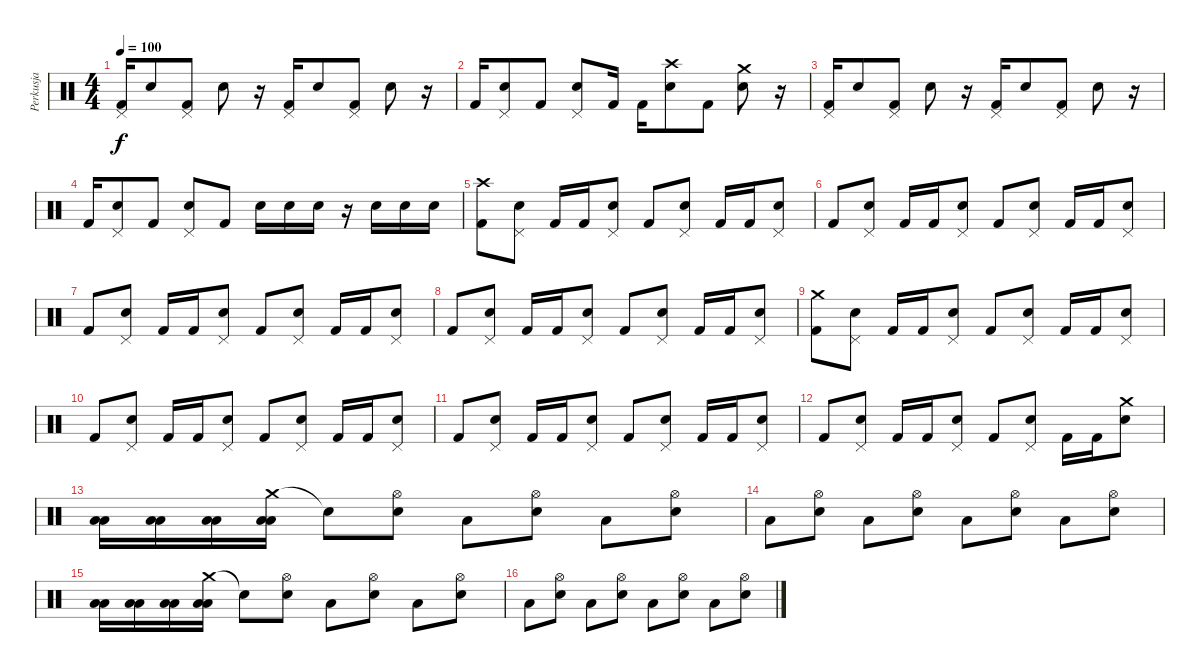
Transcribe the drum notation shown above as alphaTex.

\track ("Perkusja" "Perkusja") {instrument percussion}
\staff {score}
\articulation defaults
\ts (4 4)
\tempo 100
\clef neutral
\ks c
("Pedal Hi-Hat (hit)" "Kick (hit) 2").16{dy f} "Snare (hit) 2".8 ("Pedal Hi-Hat (hit)" "Kick (hit) 2").8 "Snare (hit) 2".8 r.16 ("Pedal Hi-Hat (hit)" "Kick (hit) 2").16 "Snare (hit) 2".8 ("Pedal Hi-Hat (hit)" "Kick (hit) 2").8 "Snare (hit) 2".8 r.16 |
"Kick (hit) 2".16 ("Pedal Hi-Hat (hit)" "Snare (hit) 2").8 "Kick (hit) 2".8 ("Pedal Hi-Hat (hit)" "Snare (hit) 2").8 "Kick (hit) 2".16 "Kick (hit) 2".16 ("Crash high (hit)" "Snare (hit) 2").8 "Kick (hit) 2".8 ("Crash medium (hit)" "Snare (hit) 2").8 r.16 |
("Pedal Hi-Hat (hit)" "Kick (hit) 2").16 "Snare (hit) 2".8 ("Pedal Hi-Hat (hit)" "Kick (hit) 2").8 "Snare (hit) 2".8 r.16 ("Pedal Hi-Hat (hit)" "Kick (hit) 2").16 "Snare (hit) 2".8 ("Pedal Hi-Hat (hit)" "Kick (hit) 2").8 "Snare (hit) 2".8 r.16 |
"Kick (hit) 2".16 ("Pedal Hi-Hat (hit)" "Snare (hit) 2").8 "Kick (hit) 2".8 ("Pedal Hi-Hat (hit)" "Snare (hit) 2").8 "Kick (hit) 2".8 "Snare (hit) 2".16 "Snare (hit) 2".16 "Snare (hit) 2".16 r.16 "Snare (hit) 2".16 "Snare (hit) 2".16 "Snare (hit) 2".16 |
("Crash high (hit)" "Kick (hit) 2").8 ("Pedal Hi-Hat (hit)" "Snare (hit) 2").8 "Kick (hit) 2".16 "Kick (hit) 2".16 ("Pedal Hi-Hat (hit)" "Snare (hit) 2").8 "Kick (hit) 2".8 ("Pedal Hi-Hat (hit)" "Snare (hit) 2").8 "Kick (hit) 2".16 "Kick (hit) 2".16 ("Pedal Hi-Hat (hit)" "Snare (hit) 2").8 |
"Kick (hit) 2".8 ("Pedal Hi-Hat (hit)" "Snare (hit) 2").8 "Kick (hit) 2".16 "Kick (hit) 2".16 ("Pedal Hi-Hat (hit)" "Snare (hit) 2").8 "Kick (hit) 2".8 ("Pedal Hi-Hat (hit)" "Snare (hit) 2").8 "Kick (hit) 2".16 "Kick (hit) 2".16 ("Pedal Hi-Hat (hit)" "Snare (hit) 2").8 |
"Kick (hit) 2".8 ("Pedal Hi-Hat (hit)" "Snare (hit) 2").8 "Kick (hit) 2".16 "Kick (hit) 2".16 ("Pedal Hi-Hat (hit)" "Snare (hit) 2").8 "Kick (hit) 2".8 ("Pedal Hi-Hat (hit)" "Snare (hit) 2").8 "Kick (hit) 2".16 "Kick (hit) 2".16 ("Pedal Hi-Hat (hit)" "Snare (hit) 2").8 |
"Kick (hit) 2".8 ("Pedal Hi-Hat (hit)" "Snare (hit) 2").8 "Kick (hit) 2".16 "Kick (hit) 2".16 ("Pedal Hi-Hat (hit)" "Snare (hit) 2").8 "Kick (hit) 2".8 ("Pedal Hi-Hat (hit)" "Snare (hit) 2").8 "Kick (hit) 2".16 "Kick (hit) 2".16 ("Pedal Hi-Hat (hit)" "Snare (hit) 2").8 |
("Crash medium (hit)" "Kick (hit) 2").8 ("Pedal Hi-Hat (hit)" "Snare (hit) 2").8 "Kick (hit) 2".16 "Kick (hit) 2".16 ("Pedal Hi-Hat (hit)" "Snare (hit) 2").8 "Kick (hit) 2".8 ("Pedal Hi-Hat (hit)" "Snare (hit) 2").8 "Kick (hit) 2".16 "Kick (hit) 2".16 ("Pedal Hi-Hat (hit)" "Snare (hit) 2").8 |
"Kick (hit) 2".8 ("Pedal Hi-Hat (hit)" "Snare (hit) 2").8 "Kick (hit) 2".16 "Kick (hit) 2".16 ("Pedal Hi-Hat (hit)" "Snare (hit) 2").8 "Kick (hit) 2".8 ("Pedal Hi-Hat (hit)" "Snare (hit) 2").8 "Kick (hit) 2".16 "Kick (hit) 2".16 ("Pedal Hi-Hat (hit)" "Snare (hit) 2").8 |
"Kick (hit) 2".8 ("Pedal Hi-Hat (hit)" "Snare (hit) 2").8 "Kick (hit) 2".16 "Kick (hit) 2".16 ("Pedal Hi-Hat (hit)" "Snare (hit) 2").8 "Kick (hit) 2".8 ("Pedal Hi-Hat (hit)" "Snare (hit) 2").8 "Kick (hit) 2".16 "Kick (hit) 2".16 ("Pedal Hi-Hat (hit)" "Snare (hit) 2").8 |
"Kick (hit) 2".8 ("Pedal Hi-Hat (hit)" "Snare (hit) 2").8 "Kick (hit) 2".16 "Kick (hit) 2".16 ("Pedal Hi-Hat (hit)" "Snare (hit) 2").8 "Kick (hit) 2".8 ("Pedal Hi-Hat (hit)" "Snare (hit) 2").8 "Kick (hit) 2".16 "Kick (hit) 2".16 ("Crash medium (hit)" "Snare (hit) 2").8 |
("Low Tom (hit)" "Low Tom (hit)").16 ("Low Tom (hit)" "Low Tom (hit)").16 ("Low Tom (hit)" "Low Tom (hit)").16 ("Crash medium (hit)" "Low Tom (hit)" "Low Tom (hit)").16 "Snare (hit)"{t}.8 ("Hi-Hat (open)" "Snare (hit) 2").8 "Low Tom (hit)".8 ("Hi-Hat (open)" "Snare (hit) 2").8 "Low Tom (hit)".8 ("Hi-Hat (open)" "Snare (hit) 2").8 |
"Low Tom (hit)".8 ("Hi-Hat (open)" "Snare (hit) 2").8 "Low Tom (hit)".8 ("Hi-Hat (open)" "Snare (hit) 2").8 "Low Tom (hit)".8 ("Hi-Hat (open)" "Snare (hit) 2").8 "Low Tom (hit)".8 ("Hi-Hat (open)" "Snare (hit) 2").8 |
("Low Tom (hit)" "Low Tom (hit)").16 ("Low Tom (hit)" "Low Tom (hit)").16 ("Low Tom (hit)" "Low Tom (hit)").16 ("Crash medium (hit)" "Low Tom (hit)" "Low Tom (hit)").16 "Snare (hit)"{t}.8 ("Hi-Hat (open)" "Snare (hit) 2").8 "Low Tom (hit)".8 ("Hi-Hat (open)" "Snare (hit) 2").8 "Low Tom (hit)".8 ("Hi-Hat (open)" "Snare (hit) 2").8 |
"Low Tom (hit)".8 ("Hi-Hat (open)" "Snare (hit) 2").8 "Low Tom (hit)".8 ("Hi-Hat (open)" "Snare (hit) 2").8 "Low Tom (hit)".8 ("Hi-Hat (open)" "Snare (hit) 2").8 "Low Tom (hit)".8 ("Hi-Hat (open)" "Snare (hit) 2").8
